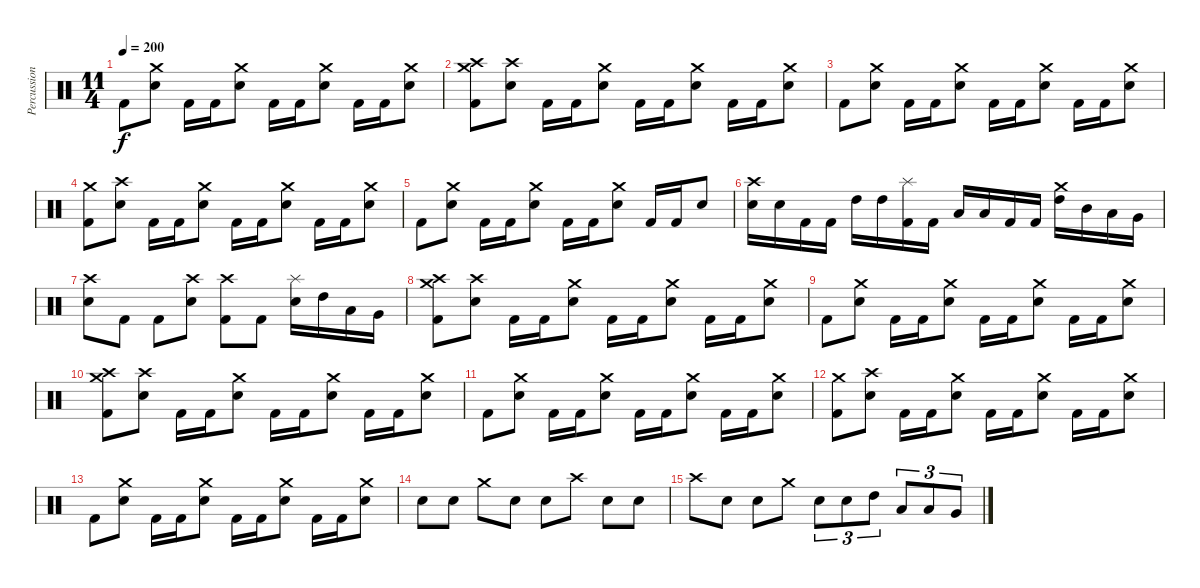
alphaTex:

\track ("Percussion" "Percussion") {instrument percussion}
\staff {score}
\articulation defaults
\ts (11 4)
\tempo 200
\clef neutral
\ks c "Kick (hit) 2".8{dy f}
("Electric Snare (hit)" "Crash medium (hit)").8 "Kick (hit) 2".16 "Kick (hit) 2".16 ("Crash medium (hit)" "Electric Snare (hit)").8 "Kick (hit) 2".16 "Kick (hit) 2".16 ("Crash medium (hit)" "Electric Snare (hit)").8 "Kick (hit) 2".16 "Kick (hit) 2".16 ("Crash medium (hit)" "Electric Snare (hit)").8 |
("Kick (hit) 2" "Crash medium (hit)" "Crash high (hit)").8 ("Electric Snare (hit)" "Crash high (hit)").8 "Kick (hit) 2".16 "Kick (hit) 2".16 ("Crash medium (hit)" "Electric Snare (hit)").8 "Kick (hit) 2".16 "Kick (hit) 2".16 ("Crash medium (hit)" "Electric Snare (hit)").8 "Kick (hit) 2".16 "Kick (hit) 2".16 ("Crash medium (hit)" "Electric Snare (hit)").8 |
"Kick (hit) 2".8 ("Electric Snare (hit)" "Crash medium (hit)").8 "Kick (hit) 2".16 "Kick (hit) 2".16 ("Crash medium (hit)" "Electric Snare (hit)").8 "Kick (hit) 2".16 "Kick (hit) 2".16 ("Crash medium (hit)" "Electric Snare (hit)").8 "Kick (hit) 2".16 "Kick (hit) 2".16 ("Crash medium (hit)" "Electric Snare (hit)").8 |
("Kick (hit) 2" "Crash medium (hit)").8 ("Electric Snare (hit)" "Crash high (hit)").8 "Kick (hit) 2".16 "Kick (hit) 2".16 ("Crash medium (hit)" "Electric Snare (hit)").8 "Kick (hit) 2".16 "Kick (hit) 2".16 ("Crash medium (hit)" "Electric Snare (hit)").8 "Kick (hit) 2".16 "Kick (hit) 2".16 ("Crash medium (hit)" "Electric Snare (hit)").8 |
"Kick (hit) 2".8 ("Electric Snare (hit)" "Crash medium (hit)").8 "Kick (hit) 2".16 "Kick (hit) 2".16 ("Crash medium (hit)" "Electric Snare (hit)").8 "Kick (hit) 2".16 "Kick (hit) 2".16 ("Crash medium (hit)" "Electric Snare (hit)").8 "Kick (hit) 2".16 "Kick (hit) 2".16 "Electric Snare (hit)".8 |
("Electric Snare (hit)" "Crash high (hit)").16 "Electric Snare (hit)".16 "Kick (hit) 2".16 "Kick (hit) 2".16 "High Tom (hit)".16 "High Tom (hit)".16 ("Kick (hit) 2" "Splash (hit)").16 "Kick (hit) 2".16 "Low Tom (hit)".16 "Low Tom (hit)".16 "Kick (hit) 2".16 "Kick (hit) 2".16 ("High Tom (hit)" "Crash medium (hit)").16 "Mid Tom (hit)".16 "Low Tom (hit)".16 "Very Low Tom (hit)".16 |
("Electric Snare (hit)" "Crash high (hit)").8 "Kick (hit) 2".8 "Kick (hit) 2".8 ("Electric Snare (hit)" "Crash high (hit)").8 ("Kick (hit) 2" "Crash high (hit)").8 "Kick (hit) 2".8 ("Electric Snare (hit)" "Splash (hit)").16 "High Tom (hit)".16 "Low Tom (hit)".16 "Very Low Tom (hit)".16 |
("Kick (hit) 2" "Crash medium (hit)" "Crash high (hit)").8 ("Electric Snare (hit)" "Crash high (hit)").8 "Kick (hit) 2".16 "Kick (hit) 2".16 ("Crash medium (hit)" "Electric Snare (hit)").8 "Kick (hit) 2".16 "Kick (hit) 2".16 ("Crash medium (hit)" "Electric Snare (hit)").8 "Kick (hit) 2".16 "Kick (hit) 2".16 ("Crash medium (hit)" "Electric Snare (hit)").8 |
"Kick (hit) 2".8 ("Electric Snare (hit)" "Crash medium (hit)").8 "Kick (hit) 2".16 "Kick (hit) 2".16 ("Crash medium (hit)" "Electric Snare (hit)").8 "Kick (hit) 2".16 "Kick (hit) 2".16 ("Crash medium (hit)" "Electric Snare (hit)").8 "Kick (hit) 2".16 "Kick (hit) 2".16 ("Crash medium (hit)" "Electric Snare (hit)").8 |
("Kick (hit) 2" "Crash medium (hit)" "Crash high (hit)").8 ("Electric Snare (hit)" "Crash high (hit)").8 "Kick (hit) 2".16 "Kick (hit) 2".16 ("Crash medium (hit)" "Electric Snare (hit)").8 "Kick (hit) 2".16 "Kick (hit) 2".16 ("Crash medium (hit)" "Electric Snare (hit)").8 "Kick (hit) 2".16 "Kick (hit) 2".16 ("Crash medium (hit)" "Electric Snare (hit)").8 |
"Kick (hit) 2".8 ("Electric Snare (hit)" "Crash medium (hit)").8 "Kick (hit) 2".16 "Kick (hit) 2".16 ("Crash medium (hit)" "Electric Snare (hit)").8 "Kick (hit) 2".16 "Kick (hit) 2".16 ("Crash medium (hit)" "Electric Snare (hit)").8 "Kick (hit) 2".16 "Kick (hit) 2".16 ("Crash medium (hit)" "Electric Snare (hit)").8 |
("Kick (hit) 2" "Crash medium (hit)").8 ("Electric Snare (hit)" "Crash high (hit)").8 "Kick (hit) 2".16 "Kick (hit) 2".16 ("Crash medium (hit)" "Electric Snare (hit)").8 "Kick (hit) 2".16 "Kick (hit) 2".16 ("Crash medium (hit)" "Electric Snare (hit)").8 "Kick (hit) 2".16 "Kick (hit) 2".16 ("Crash medium (hit)" "Electric Snare (hit)").8 |
"Kick (hit) 2".8 ("Electric Snare (hit)" "Crash medium (hit)").8 "Kick (hit) 2".16 "Kick (hit) 2".16 ("Crash medium (hit)" "Electric Snare (hit)").8 "Kick (hit) 2".16 "Kick (hit) 2".16 ("Crash medium (hit)" "Electric Snare (hit)").8 "Kick (hit) 2".16 "Kick (hit) 2".16 ("Crash medium (hit)" "Electric Snare (hit)").8 |
"Electric Snare (hit)".8 "Electric Snare (hit)".8 "Crash medium (hit)".8 "Electric Snare (hit)".8 "Electric Snare (hit)".8 "Crash high (hit)".8 "Electric Snare (hit)".8 "Electric Snare (hit)".8 |
"Crash high (hit)".8 "Electric Snare (hit)".8 "Electric Snare (hit)".8 "Crash medium (hit)".8 "Electric Snare (hit)".8{tu (3 2)} "Electric Snare (hit)".8{tu (3 2)} "High Tom (hit)".8{tu (3 2)} "Low Tom (hit)".8{tu (3 2)} "Low Tom (hit)".8{tu (3 2)} "Very Low Tom (hit)".8{tu (3 2)}
